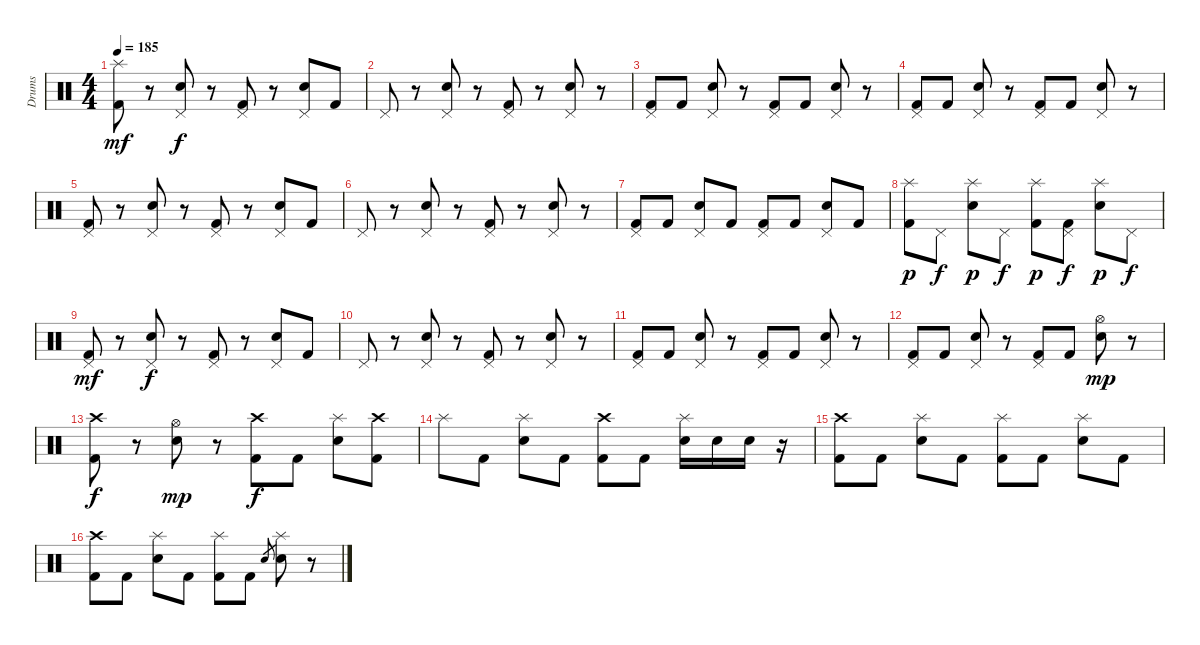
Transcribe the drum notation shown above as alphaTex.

\track ("Drums" "Drums") {instrument percussion}
\staff {score}
\articulation defaults
\ts (4 4)
\tempo 185
\clef neutral
\ks c
("Splash (hit)" "Kick (hit) 2").8{dy mf} r.8 ("Pedal Hi-Hat (hit)" "Electric Snare (hit)").8{dy f} r.8 ("Pedal Hi-Hat (hit)" "Kick (hit) 2").8 r.8 ("Pedal Hi-Hat (hit)" "Electric Snare (hit)").8 "Kick (hit) 2".8 |
"Pedal Hi-Hat (hit)".8 r.8 ("Pedal Hi-Hat (hit)" "Electric Snare (hit)").8 r.8 ("Pedal Hi-Hat (hit)" "Kick (hit) 2").8 r.8 ("Pedal Hi-Hat (hit)" "Electric Snare (hit)").8 r.8 |
("Pedal Hi-Hat (hit)" "Kick (hit) 2").8 "Kick (hit) 2".8 ("Pedal Hi-Hat (hit)" "Electric Snare (hit)").8 r.8 ("Pedal Hi-Hat (hit)" "Kick (hit) 2").8 "Kick (hit) 2".8 ("Pedal Hi-Hat (hit)" "Electric Snare (hit)").8 r.8 |
("Pedal Hi-Hat (hit)" "Kick (hit) 2").8 "Kick (hit) 2".8 ("Pedal Hi-Hat (hit)" "Electric Snare (hit)").8 r.8 ("Pedal Hi-Hat (hit)" "Kick (hit) 2").8 "Kick (hit) 2".8 ("Pedal Hi-Hat (hit)" "Electric Snare (hit)").8 r.8 |
("Pedal Hi-Hat (hit)" "Kick (hit) 2").8 r.8 ("Pedal Hi-Hat (hit)" "Electric Snare (hit)").8 r.8 ("Pedal Hi-Hat (hit)" "Kick (hit) 2").8 r.8 ("Pedal Hi-Hat (hit)" "Electric Snare (hit)").8 "Kick (hit) 2".8 |
"Pedal Hi-Hat (hit)".8 r.8 ("Pedal Hi-Hat (hit)" "Electric Snare (hit)").8 r.8 ("Pedal Hi-Hat (hit)" "Kick (hit) 2").8 r.8 ("Pedal Hi-Hat (hit)" "Electric Snare (hit)").8 r.8 |
("Pedal Hi-Hat (hit)" "Kick (hit) 2").8 "Kick (hit) 2".8 ("Pedal Hi-Hat (hit)" "Electric Snare (hit)").8 "Kick (hit) 2".8 ("Pedal Hi-Hat (hit)" "Kick (hit) 2").8 "Kick (hit) 2".8 ("Pedal Hi-Hat (hit)" "Electric Snare (hit)").8 "Kick (hit) 2".8 |
("Splash (hit)" "Kick (hit) 2").8{dy p} "Pedal Hi-Hat (hit)".8{dy f} ("Splash (hit)" "Electric Snare (hit)").8{dy p} "Pedal Hi-Hat (hit)".8{dy f} ("Splash (hit)" "Kick (hit) 2").8{dy p} ("Pedal Hi-Hat (hit)" "Kick (hit) 2").8{dy f} ("Splash (hit)" "Electric Snare (hit)").8{dy p} "Pedal Hi-Hat (hit)".8{dy f} |
("Pedal Hi-Hat (hit)" "Kick (hit) 2").8{dy mf} r.8 ("Pedal Hi-Hat (hit)" "Electric Snare (hit)").8{dy f} r.8 ("Pedal Hi-Hat (hit)" "Kick (hit) 2").8 r.8 ("Pedal Hi-Hat (hit)" "Electric Snare (hit)").8 "Kick (hit) 2".8 |
"Pedal Hi-Hat (hit)".8 r.8 ("Pedal Hi-Hat (hit)" "Electric Snare (hit)").8 r.8 ("Pedal Hi-Hat (hit)" "Kick (hit) 2").8 r.8 ("Pedal Hi-Hat (hit)" "Electric Snare (hit)").8 r.8 |
("Pedal Hi-Hat (hit)" "Kick (hit) 2").8 "Kick (hit) 2".8 ("Pedal Hi-Hat (hit)" "Electric Snare (hit)").8 r.8 ("Pedal Hi-Hat (hit)" "Kick (hit) 2").8 "Kick (hit) 2".8 ("Pedal Hi-Hat (hit)" "Electric Snare (hit)").8 r.8 |
("Pedal Hi-Hat (hit)" "Kick (hit) 2").8 "Kick (hit) 2".8 ("Pedal Hi-Hat (hit)" "Electric Snare (hit)").8 r.8 ("Pedal Hi-Hat (hit)" "Kick (hit) 2").8 "Kick (hit) 2".8 ("Hi-Hat (open)" "Electric Snare (hit)").8{dy mp} r.8 |
("Crash high (hit)" "Kick (hit) 2").8{dy f} r.8 ("Hi-Hat (open)" "Electric Snare (hit)").8{dy mp} r.8 ("Crash high (hit)" "Kick (hit) 2").8{dy f} "Kick (hit) 2".8 ("Splash (hit)" "Electric Snare (hit)").8 ("Crash high (hit)" "Kick (hit) 2").8 |
"Splash (hit)".8 "Kick (hit) 2".8 ("Splash (hit)" "Electric Snare (hit)").8 "Kick (hit) 2".8 ("Crash high (hit)" "Kick (hit) 2").8 "Kick (hit) 2".8 ("Splash (hit)" "Electric Snare (hit)").16 "Electric Snare (hit)".16 "Electric Snare (hit)".16 r.16 |
("Crash high (hit)" "Kick (hit) 2").8 "Kick (hit) 2".8 ("Splash (hit)" "Electric Snare (hit)").8 "Kick (hit) 2".8 ("Splash (hit)" "Kick (hit) 2").8 "Kick (hit) 2".8 ("Splash (hit)" "Electric Snare (hit)").8 "Kick (hit) 2".8 |
("Crash high (hit)" "Kick (hit) 2").8 "Kick (hit) 2".8 ("Splash (hit)" "Electric Snare (hit)").8 "Kick (hit) 2".8 ("Splash (hit)" "Kick (hit) 2").8 "Kick (hit) 2".8 "Electric Snare (hit)".8{gr} ("Splash (hit)" "Electric Snare (hit)").8 r.8
